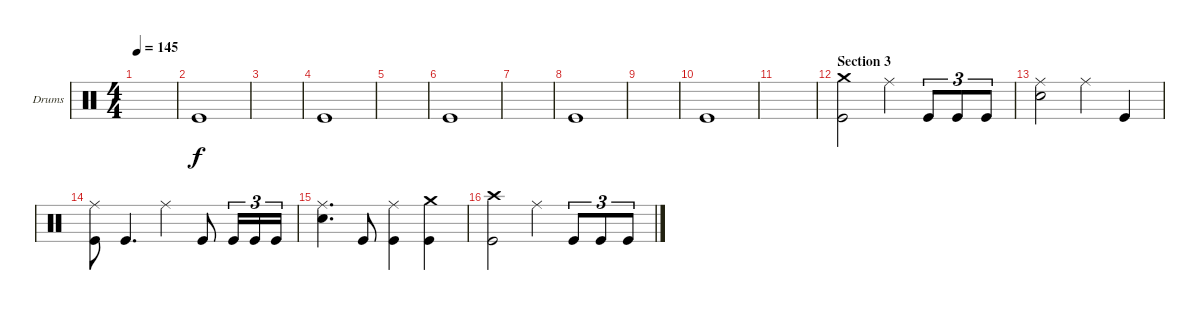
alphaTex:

\defaultSystemsLayout 4
\bracketExtendMode groupsimilarinstruments
\firstSystemTrackNameOrientation horizontal
\otherSystemsTrackNameOrientation horizontal
\track ("Drums" "Drums") {instrument percussion}
\staff {score}
\articulation defaults
\ts (4 4)
\tempo 145
\clef neutral
\ks c
|
"Kick (hit)".1 |
|
"Kick (hit)".1 |
|
"Kick (hit)".1 |
|
"Kick (hit)".1 |
|
"Kick (hit)".1 |
|
\section ("" "Section 3")
("Kick (hit)" "Crash medium (hit)").2 "Ride (middle)".4 "Kick (hit)".8{tu (3 2)} "Kick (hit)".8{tu (3 2)} "Kick (hit)".8{tu (3 2)} |
("Snare (hit) 2" "Ride (middle)").2 "Ride (middle)".4 "Kick (hit)".4 |
("Kick (hit)" "Ride (middle)").8 "Kick (hit)".4{d} "Ride (middle)".4 "Kick (hit)".8 "Kick (hit)".16{tu (3 2)} "Kick (hit)".16{tu (3 2)} "Kick (hit)".16{tu (3 2)} |
("Snare (hit) 2" "Ride (middle)").4{d} "Kick (hit)".8 ("Kick (hit)" "Ride (middle)").4 ("Kick (hit)" "Crash medium (hit)").4 |
("Kick (hit)" "Crash high (hit)").2 "Ride (middle)".4 "Kick (hit)".8{tu (3 2)} "Kick (hit)".8{tu (3 2)} "Kick (hit)".8{tu (3 2)}
